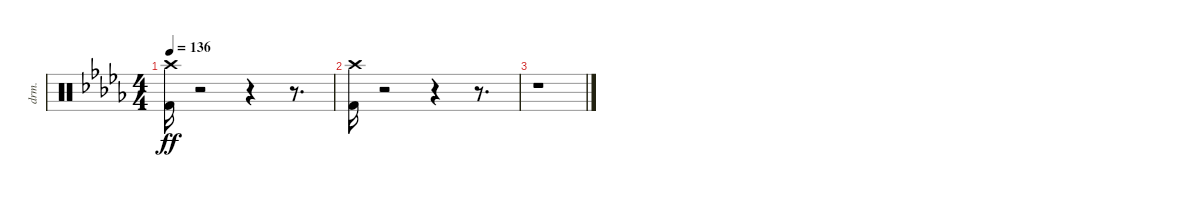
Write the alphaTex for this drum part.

\bracketExtendMode nobrackets
\track ("Drums" "drm.") {instrument percussion}
\staff {score}
\articulation defaults
\ts (4 4)
\tempo 136
\clef neutral
\ks db
("Kick (hit) 2"{acc forcenatural} "Crash high (hit)"{acc #}).16{dy ff beam Down} r.2{beam Down} r.4{beam Down} r.8{d beam Down} |
("Kick (hit) 2"{acc forcenatural} "Crash high (hit)"{acc #}).16{beam Down} r.2{beam Down} r.4{beam Down} r.8{d beam Down} |
r.1{beam Down}
